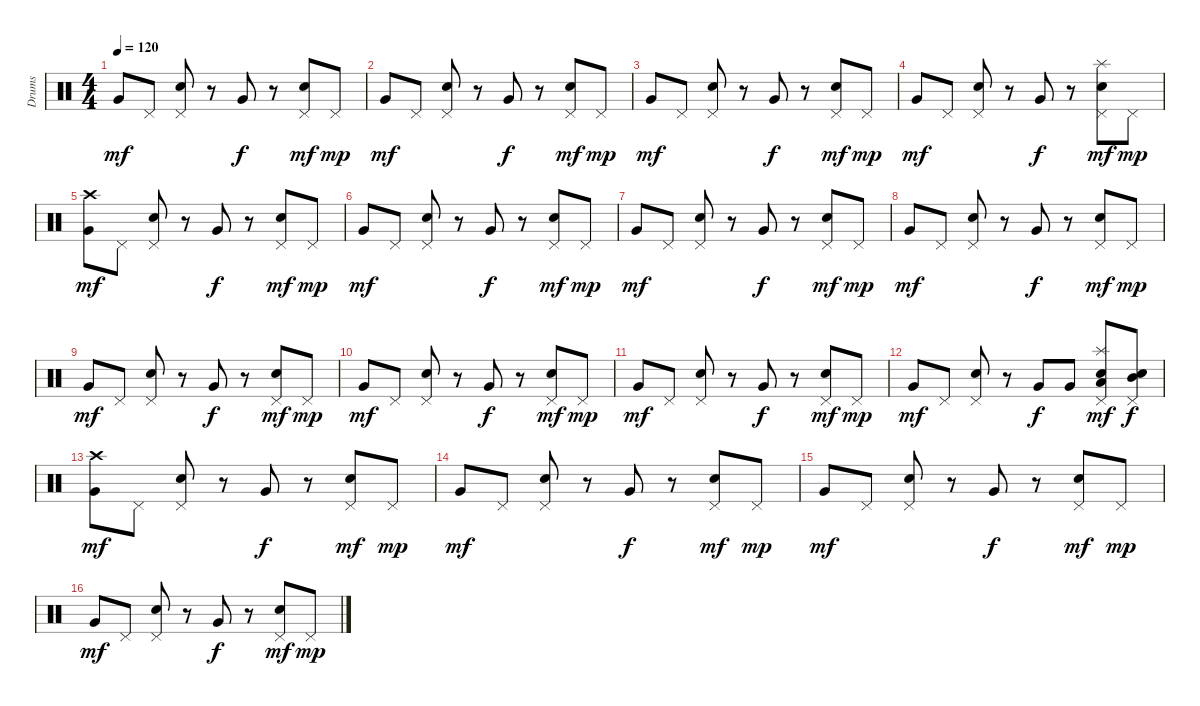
\track ("Drums" "Drums") {instrument percussion}
\staff {score}
\articulation defaults
\ts (4 4)
\tempo 120
\clef neutral
\ks c "Very Low Tom (hit)".8{dy mf} "Pedal Hi-Hat (hit)".8
("Pedal Hi-Hat (hit)" "Electric Snare (hit)").8 r.8 "Very Low Tom (hit)".8{dy f} r.8 ("Pedal Hi-Hat (hit)" "Electric Snare (hit)").8{dy mf} "Pedal Hi-Hat (hit)".8{dy mp} |
"Very Low Tom (hit)".8{dy mf} "Pedal Hi-Hat (hit)".8 ("Pedal Hi-Hat (hit)" "Electric Snare (hit)").8 r.8 "Very Low Tom (hit)".8{dy f} r.8 ("Pedal Hi-Hat (hit)" "Electric Snare (hit)").8{dy mf} "Pedal Hi-Hat (hit)".8{dy mp} |
"Very Low Tom (hit)".8{dy mf} "Pedal Hi-Hat (hit)".8 ("Pedal Hi-Hat (hit)" "Electric Snare (hit)").8 r.8 "Very Low Tom (hit)".8{dy f} r.8 ("Pedal Hi-Hat (hit)" "Electric Snare (hit)").8{dy mf} "Pedal Hi-Hat (hit)".8{dy mp} |
"Very Low Tom (hit)".8{dy mf} "Pedal Hi-Hat (hit)".8 ("Pedal Hi-Hat (hit)" "Electric Snare (hit)").8 r.8 "Very Low Tom (hit)".8{dy f} r.8 ("Splash (hit)" "Pedal Hi-Hat (hit)" "Electric Snare (hit)").8{dy mf} "Pedal Hi-Hat (hit)".8{dy mp} |
("Crash high (hit)" "Very Low Tom (hit)").8{dy mf} "Pedal Hi-Hat (hit)".8 ("Pedal Hi-Hat (hit)" "Electric Snare (hit)").8 r.8 "Very Low Tom (hit)".8{dy f} r.8 ("Pedal Hi-Hat (hit)" "Electric Snare (hit)").8{dy mf} "Pedal Hi-Hat (hit)".8{dy mp} |
"Very Low Tom (hit)".8{dy mf} "Pedal Hi-Hat (hit)".8 ("Pedal Hi-Hat (hit)" "Electric Snare (hit)").8 r.8 "Very Low Tom (hit)".8{dy f} r.8 ("Pedal Hi-Hat (hit)" "Electric Snare (hit)").8{dy mf} "Pedal Hi-Hat (hit)".8{dy mp} |
"Very Low Tom (hit)".8{dy mf} "Pedal Hi-Hat (hit)".8 ("Pedal Hi-Hat (hit)" "Electric Snare (hit)").8 r.8 "Very Low Tom (hit)".8{dy f} r.8 ("Pedal Hi-Hat (hit)" "Electric Snare (hit)").8{dy mf} "Pedal Hi-Hat (hit)".8{dy mp} |
"Very Low Tom (hit)".8{dy mf} "Pedal Hi-Hat (hit)".8 ("Pedal Hi-Hat (hit)" "Electric Snare (hit)").8 r.8 "Very Low Tom (hit)".8{dy f} r.8 ("Pedal Hi-Hat (hit)" "Electric Snare (hit)").8{dy mf} "Pedal Hi-Hat (hit)".8{dy mp} |
"Very Low Tom (hit)".8{dy mf} "Pedal Hi-Hat (hit)".8 ("Pedal Hi-Hat (hit)" "Electric Snare (hit)").8 r.8 "Very Low Tom (hit)".8{dy f} r.8 ("Pedal Hi-Hat (hit)" "Electric Snare (hit)").8{dy mf} "Pedal Hi-Hat (hit)".8{dy mp} |
"Very Low Tom (hit)".8{dy mf} "Pedal Hi-Hat (hit)".8 ("Pedal Hi-Hat (hit)" "Electric Snare (hit)").8 r.8 "Very Low Tom (hit)".8{dy f} r.8 ("Pedal Hi-Hat (hit)" "Electric Snare (hit)").8{dy mf} "Pedal Hi-Hat (hit)".8{dy mp} |
"Very Low Tom (hit)".8{dy mf} "Pedal Hi-Hat (hit)".8 ("Pedal Hi-Hat (hit)" "Electric Snare (hit)").8 r.8 "Very Low Tom (hit)".8{dy f} r.8 ("Pedal Hi-Hat (hit)" "Electric Snare (hit)").8{dy mf} "Pedal Hi-Hat (hit)".8{dy mp} |
"Very Low Tom (hit)".8{dy mf} "Pedal Hi-Hat (hit)".8 ("Pedal Hi-Hat (hit)" "Electric Snare (hit)").8 r.8 "Very Low Tom (hit)".8{dy f} "Very Low Tom (hit)".8 ("Splash (hit)" "Pedal Hi-Hat (hit)" "Electric Snare (hit)" "Low Tom (hit)").8{dy mf} ("Pedal Hi-Hat (hit)" "Electric Snare (hit)" "Mid Tom (hit)").8{dy f} |
("Crash high (hit)" "Very Low Tom (hit)").8{dy mf} "Pedal Hi-Hat (hit)".8 ("Pedal Hi-Hat (hit)" "Electric Snare (hit)").8 r.8 "Very Low Tom (hit)".8{dy f} r.8 ("Pedal Hi-Hat (hit)" "Electric Snare (hit)").8{dy mf} "Pedal Hi-Hat (hit)".8{dy mp} |
"Very Low Tom (hit)".8{dy mf} "Pedal Hi-Hat (hit)".8 ("Pedal Hi-Hat (hit)" "Electric Snare (hit)").8 r.8 "Very Low Tom (hit)".8{dy f} r.8 ("Pedal Hi-Hat (hit)" "Electric Snare (hit)").8{dy mf} "Pedal Hi-Hat (hit)".8{dy mp} |
"Very Low Tom (hit)".8{dy mf} "Pedal Hi-Hat (hit)".8 ("Pedal Hi-Hat (hit)" "Electric Snare (hit)").8 r.8 "Very Low Tom (hit)".8{dy f} r.8 ("Pedal Hi-Hat (hit)" "Electric Snare (hit)").8{dy mf} "Pedal Hi-Hat (hit)".8{dy mp} |
"Very Low Tom (hit)".8{dy mf} "Pedal Hi-Hat (hit)".8 ("Pedal Hi-Hat (hit)" "Electric Snare (hit)").8 r.8 "Very Low Tom (hit)".8{dy f} r.8 ("Pedal Hi-Hat (hit)" "Electric Snare (hit)").8{dy mf} "Pedal Hi-Hat (hit)".8{dy mp}
